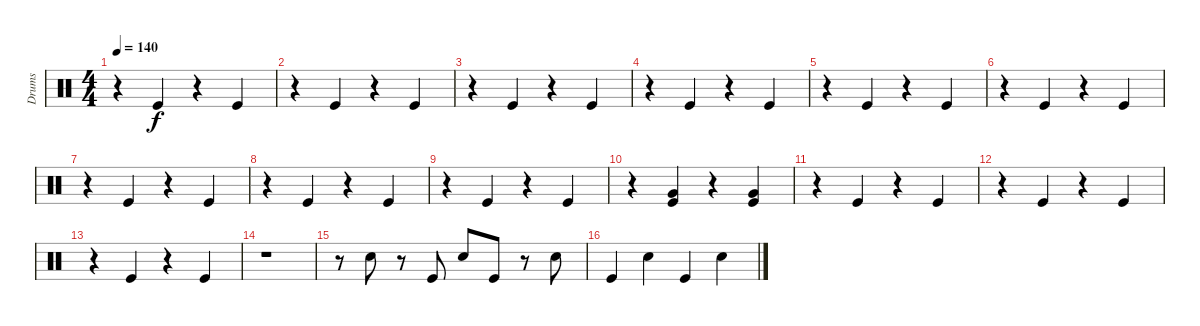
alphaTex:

\track ("Drums" "Drums") {instrument percussion}
\staff {score}
\articulation defaults
\ts (4 4)
\tempo 140
\clef neutral
\ks c
r.4{dy f} "Kick (hit)".4 r.4 "Kick (hit)".4 |
r.4 "Kick (hit)".4 r.4 "Kick (hit)".4 |
r.4 "Kick (hit)".4 r.4 "Kick (hit)".4 |
r.4 "Kick (hit)".4 r.4 "Kick (hit)".4 |
r.4 "Kick (hit)".4 r.4 "Kick (hit)".4 |
r.4 "Kick (hit)".4 r.4 "Kick (hit)".4 |
r.4 "Kick (hit)".4 r.4 "Kick (hit)".4 |
r.4 "Kick (hit)".4 r.4 "Kick (hit)".4 |
r.4 "Kick (hit)".4 r.4 "Kick (hit)".4 |
r.4 ("Very Low Tom (hit)" "Kick (hit)").4 r.4 ("Very Low Tom (hit)" "Kick (hit)").4 |
r.4 "Kick (hit)".4 r.4 "Kick (hit)".4 |
r.4 "Kick (hit)".4 r.4 "Kick (hit)".4 |
r.4 "Kick (hit)".4 r.4 "Kick (hit)".4 |
r.1 |
r.8 "Snare (hit) 2".8 r.8 "Kick (hit)".8 "Snare (hit) 2".8 "Kick (hit)".8 r.8 "Snare (hit) 2".8 |
"Kick (hit)".4 "Snare (hit) 2".4 "Kick (hit)".4 "Snare (hit) 2".4
